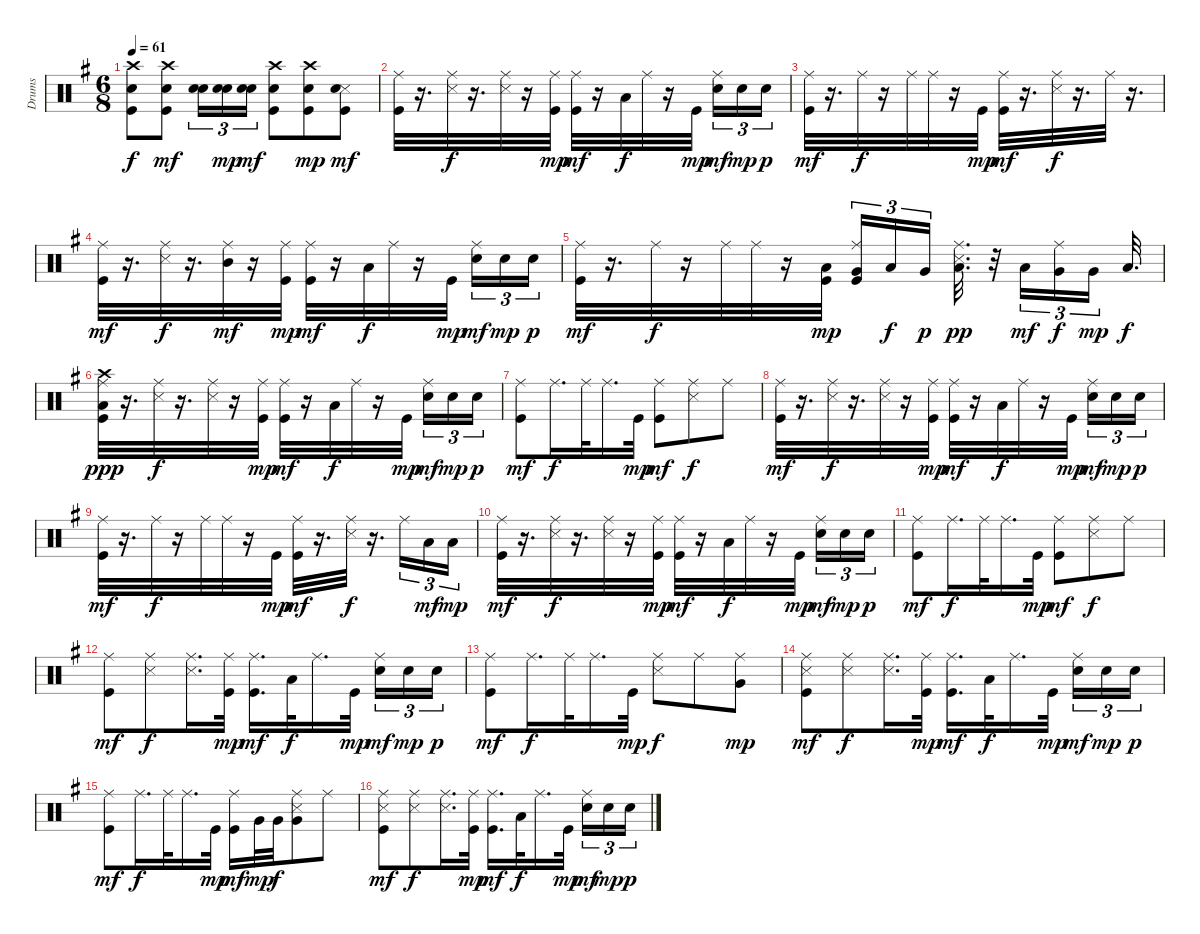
\track ("Drums" "Drums") {instrument percussion}
\staff {score}
\articulation defaults
\ts (6 8)
\tempo 61
\clef neutral
\ks g
("Kick (hit)" "Electric Snare (hit)" "Crash high (hit)").8{dy f} ("Kick (hit)" "Electric Snare (hit)" "Crash high (hit)").8{dy mf} ("Snare (hit) 2" "Electric Snare (hit)").16{tu (3 2)} ("Snare (hit) 2" "Electric Snare (hit)").16{tu (3 2) dy mp} ("Snare (hit) 2" "Electric Snare (hit)").16{tu (3 2) dy mf} ("Crash high (hit)" "Kick (hit)" "Electric Snare (hit)").8 ("Kick (hit)" "Electric Snare (hit)" "Crash high (hit)").8{dy mp} ("Kick (hit)" "Snare (side stick) 3" "Electric Snare (hit)").8{dy mf} |
("Kick (hit)" "Ride (middle)").32 r.16{d} ("Snare (side stick) 3" "Ride (middle)").32{dy f} r.16{d} ("Snare (side stick) 3" "Ride (middle)").32 r.16 ("Kick (hit)" "Ride (middle)").32{dy mp} ("Kick (hit)" "Ride (middle)").32{dy mf} r.16 "Low Tom (hit)".32{dy f} "Ride (middle)".32 r.16 "Kick (hit)".32{dy mp beam splitsecondary} ("Electric Snare (hit)" "Ride (middle)").16{tu (3 2) dy mf} "Electric Snare (hit)".16{tu (3 2) dy mp} "Electric Snare (hit)".16{tu (3 2) dy p} |
("Kick (hit)" "Ride (middle)").32{dy mf} r.16{d} "Ride (middle)".32{dy f} r.16 "Ride (middle)".32 "Ride (middle)".32 r.16 "Kick (hit)".32{dy mp} ("Kick (hit)" "Ride (middle)").32{dy mf} r.16{d} ("Snare (side stick) 3" "Ride (middle)").32{dy f} r.16{d} "Ride (middle)".32 r.16{d} |
("Kick (hit)" "Ride (middle)").32{dy mf} r.16{d} ("Snare (side stick) 3" "Ride (middle)").32{dy f} r.16{d} ("Mid Tom (hit)" "Ride (middle)").32{dy mf} r.16 ("Kick (hit)" "Ride (middle)").32{dy mp} ("Kick (hit)" "Ride (middle)").32{dy mf} r.16 "Low Tom (hit)".32{dy f} "Ride (middle)".32 r.16 "Kick (hit)".32{dy mp beam splitsecondary} ("Electric Snare (hit)" "Ride (middle)").16{tu (3 2) dy mf} "Electric Snare (hit)".16{tu (3 2) dy mp} "Electric Snare (hit)".16{tu (3 2) dy p} |
("Kick (hit)" "Ride (middle)").32{dy mf} r.16{d} "Ride (middle)".32{dy f} r.16 "Ride (middle)".32 "Ride (middle)".32 r.16 ("Kick (hit)" "Low Tom (hit)").32{dy mp} ("Kick (hit)" "Very Low Tom (hit)" "Ride (middle)").16{tu (3 2)} "Low Tom (hit)".16{tu (3 2) dy f} "Very Low Tom (hit)".16{tu (3 2) dy p beam splitsecondary} ("Snare (side stick) 3" "Low Tom (hit)" "Ride (middle)").32{d dy pp} r.32 "Low Tom (hit)".16{tu (3 2) dy mf} ("Very Low Tom (hit)" "Ride (middle)").16{tu (3 2) dy f} "Very Low Tom (hit)".16{tu (3 2) dy mp beam splitsecondary} "Low Floor Tom (hit)".32{d dy f} |
("Kick (hit)" "Low Floor Tom (hit)" "Crash high (hit)" "Ride (middle)").32{dy ppp} r.16{d} ("Snare (side stick) 3" "Ride (middle)").32{dy f} r.16{d} ("Snare (side stick) 3" "Ride (middle)").32 r.16 ("Kick (hit)" "Ride (middle)").32{dy mp} ("Kick (hit)" "Ride (middle)").32{dy mf} r.16 "Low Tom (hit)".32{dy f} "Ride (middle)".32 r.16 "Kick (hit)".32{dy mp beam splitsecondary} ("Electric Snare (hit)" "Ride (middle)").16{tu (3 2) dy mf} "Electric Snare (hit)".16{tu (3 2) dy mp} "Electric Snare (hit)".16{tu (3 2) dy p} |
("Kick (hit)" "Ride (middle)").8{dy mf} "Ride (middle)".16{d dy f} "Ride (middle)".32 "Ride (middle)".16{d} "Kick (hit)".32{dy mp} ("Kick (hit)" "Ride (middle)").8{dy mf} ("Snare (side stick) 3" "Ride (middle)").8{dy f} "Ride (middle)".8 |
("Kick (hit)" "Ride (middle)").32{dy mf} r.16{d} ("Snare (side stick) 3" "Ride (middle)").32{dy f} r.16{d} ("Snare (side stick) 3" "Ride (middle)").32 r.16 ("Kick (hit)" "Ride (middle)").32{dy mp} ("Kick (hit)" "Ride (middle)").32{dy mf} r.16 "Low Tom (hit)".32{dy f} "Ride (middle)".32 r.16 "Kick (hit)".32{dy mp beam splitsecondary} ("Electric Snare (hit)" "Ride (middle)").16{tu (3 2) dy mf} "Electric Snare (hit)".16{tu (3 2) dy mp} "Electric Snare (hit)".16{tu (3 2) dy p} |
("Kick (hit)" "Ride (middle)").32{dy mf} r.16{d} "Ride (middle)".32{dy f} r.16 "Ride (middle)".32 "Ride (middle)".32 r.16 "Kick (hit)".32{dy mp} ("Kick (hit)" "Ride (middle)").32{dy mf} r.16{d} ("Snare (side stick) 3" "Ride (middle)").32{dy f} r.16{d} "Ride (middle)".16{tu (3 2)} "Low Tom (hit)".16{tu (3 2) dy mf} "Low Tom (hit)".16{tu (3 2) dy mp} |
("Kick (hit)" "Ride (middle)").32{dy mf} r.16{d} ("Snare (side stick) 3" "Ride (middle)").32{dy f} r.16{d} ("Snare (side stick) 3" "Ride (middle)").32 r.16 ("Kick (hit)" "Ride (middle)").32{dy mp} ("Kick (hit)" "Ride (middle)").32{dy mf} r.16 "Low Tom (hit)".32{dy f} "Ride (middle)".32 r.16 "Kick (hit)".32{dy mp beam splitsecondary} ("Electric Snare (hit)" "Ride (middle)").16{tu (3 2) dy mf} "Electric Snare (hit)".16{tu (3 2) dy mp} "Electric Snare (hit)".16{tu (3 2) dy p} |
("Kick (hit)" "Ride (middle)").8{dy mf} "Ride (middle)".16{d dy f} "Ride (middle)".32 "Ride (middle)".16{d} "Kick (hit)".32{dy mp} ("Kick (hit)" "Ride (middle)").8{dy mf} ("Snare (side stick) 3" "Ride (middle)").8{dy f} "Ride (middle)".8 |
("Kick (hit)" "Ride (middle)").8{dy mf} ("Snare (side stick) 3" "Ride (middle)").8{dy f} ("Snare (side stick) 3" "Ride (middle)").16{d} ("Kick (hit)" "Ride (middle)").32{dy mp} ("Kick (hit)" "Ride (middle)").16{d dy mf} "Low Tom (hit)".32{dy f} "Ride (middle)".16{d} "Kick (hit)".32{dy mp beam splitsecondary} ("Electric Snare (hit)" "Ride (middle)").16{tu (3 2) dy mf} "Electric Snare (hit)".16{tu (3 2) dy mp} "Electric Snare (hit)".16{tu (3 2) dy p} |
("Kick (hit)" "Ride (middle)").8{dy mf} "Ride (middle)".16{d dy f} "Ride (middle)".32 "Ride (middle)".16{d} "Kick (hit)".32{dy mp} ("Snare (side stick) 3" "Ride (middle)").8{dy f} "Ride (middle)".8 ("Very Low Tom (hit)" "Ride (middle)").8{dy mp} |
("Kick (hit)" "Snare (side stick) 3" "Ride (middle)").8{dy mf} ("Snare (side stick) 3" "Ride (middle)").8{dy f} ("Snare (side stick) 3" "Ride (middle)").16{d} ("Kick (hit)" "Ride (middle)").32{dy mp} ("Kick (hit)" "Ride (middle)").16{d dy mf} "Low Tom (hit)".32{dy f} "Ride (middle)".16{d} "Kick (hit)".32{dy mp beam splitsecondary} ("Electric Snare (hit)" "Ride (middle)").16{tu (3 2) dy mf} "Electric Snare (hit)".16{tu (3 2) dy mp} "Electric Snare (hit)".16{tu (3 2) dy p} |
("Kick (hit)" "Ride (middle)").8{dy mf} "Ride (middle)".16{d dy f} "Ride (middle)".32 "Ride (middle)".16{d} "Kick (hit)".32{dy mp} ("Kick (hit)" "Ride (middle)").16{dy mf} "Very Low Tom (hit)".32{dy mp} "Very Low Tom (hit)".32{dy f} ("Snare (side stick) 3" "Very Low Tom (hit)" "Ride (middle)").8 "Ride (middle)".8 |
("Kick (hit)" "Snare (side stick) 3" "Ride (middle)").8{dy mf} ("Snare (side stick) 3" "Ride (middle)").8{dy f} ("Snare (side stick) 3" "Ride (middle)").16{d} ("Kick (hit)" "Ride (middle)").32{dy mp} ("Kick (hit)" "Ride (middle)").16{d dy mf} "Low Tom (hit)".32{dy f} "Ride (middle)".16{d} "Kick (hit)".32{dy mp beam splitsecondary} ("Electric Snare (hit)" "Ride (middle)").16{tu (3 2) dy mf} "Electric Snare (hit)".16{tu (3 2) dy mp} "Electric Snare (hit)".16{tu (3 2) dy p}
